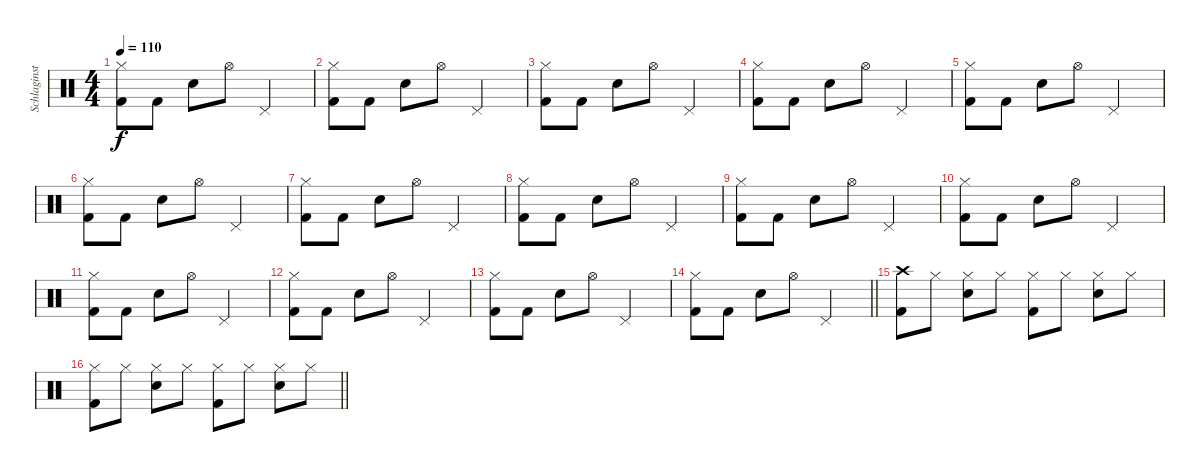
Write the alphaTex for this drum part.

\track ("Schlaginstrumente - Auswahl" "Schlaginst") {instrument percussion}
\staff {score}
\articulation defaults
\ts (4 4)
\tempo 110
\clef neutral
\ks c
("Hi-Hat (closed)" "Kick (hit) 2").8{dy f} "Kick (hit) 2".8 "Snare (hit) 2".8 "Hi-Hat (open)".8 "Pedal Hi-Hat (hit)".2 |
("Hi-Hat (closed)" "Kick (hit) 2").8 "Kick (hit) 2".8 "Snare (hit) 2".8 "Hi-Hat (open)".8 "Pedal Hi-Hat (hit)".2 |
("Hi-Hat (closed)" "Kick (hit) 2").8 "Kick (hit) 2".8 "Snare (hit) 2".8 "Hi-Hat (open)".8 "Pedal Hi-Hat (hit)".2 |
("Hi-Hat (closed)" "Kick (hit) 2").8 "Kick (hit) 2".8 "Snare (hit) 2".8 "Hi-Hat (open)".8 "Pedal Hi-Hat (hit)".2 |
("Hi-Hat (closed)" "Kick (hit) 2").8 "Kick (hit) 2".8 "Snare (hit) 2".8 "Hi-Hat (open)".8 "Pedal Hi-Hat (hit)".2 |
("Hi-Hat (closed)" "Kick (hit) 2").8 "Kick (hit) 2".8 "Snare (hit) 2".8 "Hi-Hat (open)".8 "Pedal Hi-Hat (hit)".2 |
("Hi-Hat (closed)" "Kick (hit) 2").8 "Kick (hit) 2".8 "Snare (hit) 2".8 "Hi-Hat (open)".8 "Pedal Hi-Hat (hit)".2 |
("Hi-Hat (closed)" "Kick (hit) 2").8 "Kick (hit) 2".8 "Snare (hit) 2".8 "Hi-Hat (open)".8 "Pedal Hi-Hat (hit)".2 |
("Hi-Hat (closed)" "Kick (hit) 2").8 "Kick (hit) 2".8 "Snare (hit) 2".8 "Hi-Hat (open)".8 "Pedal Hi-Hat (hit)".2 |
("Hi-Hat (closed)" "Kick (hit) 2").8 "Kick (hit) 2".8 "Snare (hit) 2".8 "Hi-Hat (open)".8 "Pedal Hi-Hat (hit)".2 |
("Hi-Hat (closed)" "Kick (hit) 2").8 "Kick (hit) 2".8 "Snare (hit) 2".8 "Hi-Hat (open)".8 "Pedal Hi-Hat (hit)".2 |
("Hi-Hat (closed)" "Kick (hit) 2").8 "Kick (hit) 2".8 "Snare (hit) 2".8 "Hi-Hat (open)".8 "Pedal Hi-Hat (hit)".2 |
("Hi-Hat (closed)" "Kick (hit) 2").8 "Kick (hit) 2".8 "Snare (hit) 2".8 "Hi-Hat (open)".8 "Pedal Hi-Hat (hit)".2 |
\barLineRight lightlight
("Hi-Hat (closed)" "Kick (hit) 2").8 "Kick (hit) 2".8 "Snare (hit) 2".8 "Hi-Hat (open)".8 "Pedal Hi-Hat (hit)".2 |
("Crash high (hit)" "Kick (hit) 2").8 "Hi-Hat (closed)".8 ("Hi-Hat (closed)" "Snare (hit) 2").8 "Hi-Hat (closed)".8 ("Hi-Hat (closed)" "Kick (hit) 2").8 "Hi-Hat (closed)".8 ("Hi-Hat (closed)" "Snare (hit) 2").8 "Hi-Hat (closed)".8 |
\barLineRight lightlight
("Hi-Hat (closed)" "Kick (hit) 2").8 "Hi-Hat (closed)".8 ("Hi-Hat (closed)" "Snare (hit) 2").8 "Hi-Hat (closed)".8 ("Hi-Hat (closed)" "Kick (hit) 2").8 "Hi-Hat (closed)".8 ("Hi-Hat (closed)" "Snare (hit) 2").8 "Hi-Hat (closed)".8
